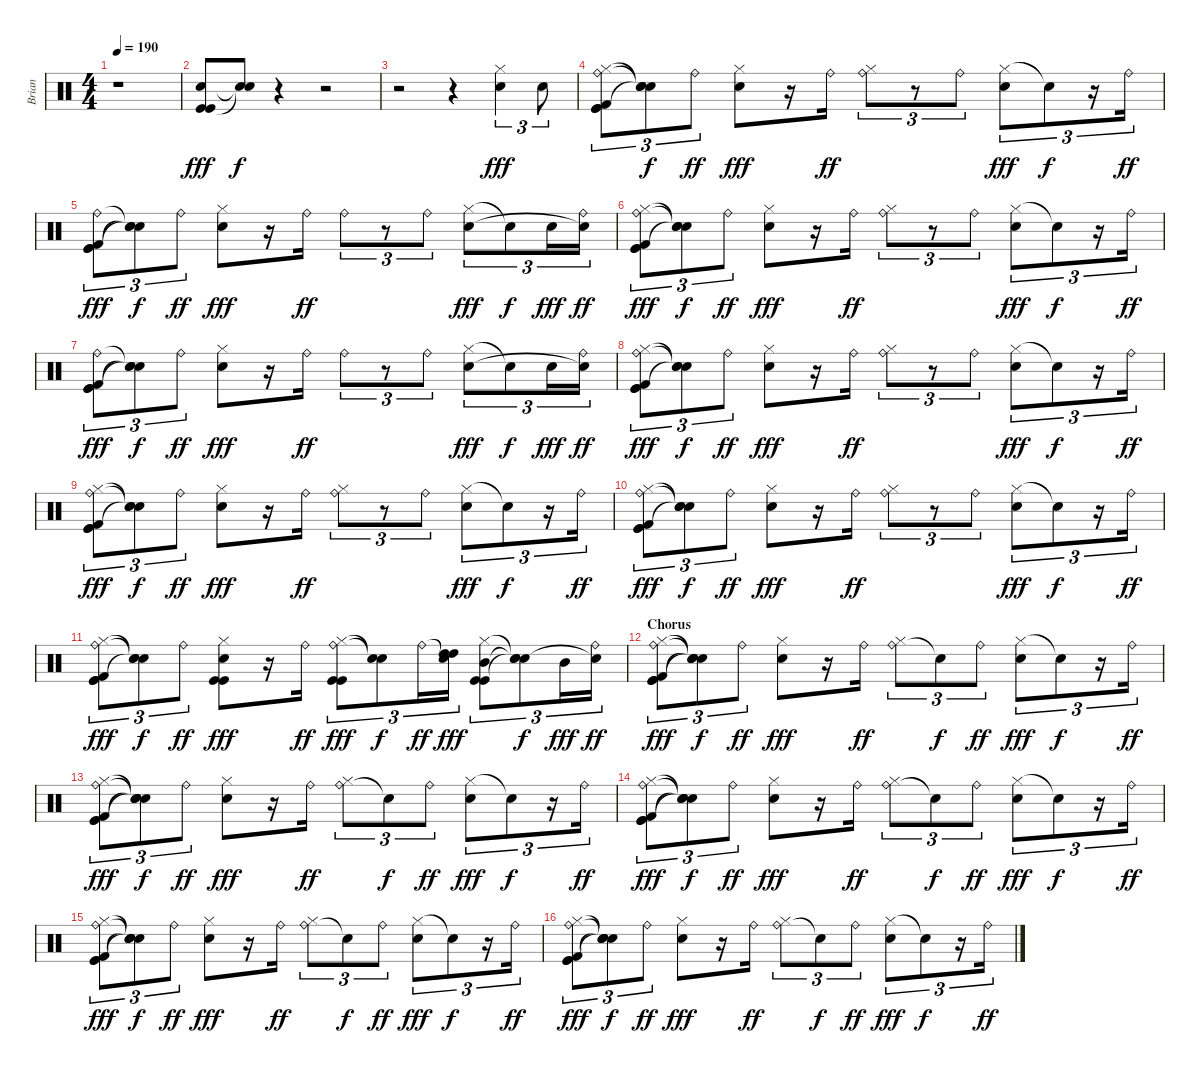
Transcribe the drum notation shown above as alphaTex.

\track ("Brian" "Brian") {instrument percussion}
\staff {score}
\articulation defaults
\ts (4 4)
\tempo 190
\clef neutral
\ks c
r.1{dy f} |
("Electric Snare (hit)" "Kick (hit)" "Kick (hit)").8{dy fff} ("Snare (hit)"{t} "Snare (hit)"{t}).8{dy f} r.4 r.2 |
r.2 r.4 ("Hi-Hat (closed)" "Electric Snare (hit)").4{tu (3 2) dy fff} "Electric Snare (hit)".8{tu (3 2)} |
("Ride (bell)" "Hi-Hat (closed)" "Kick (hit)" "Kick (hit) 2" "Kick (hit)").8{tu (3 2)} ("Snare (hit)"{t} "Snare (hit)"{t} "Snare (hit)"{t}).8{tu (3 2) dy f} "Ride (bell)".8{tu (3 2) dy ff} ("Hi-Hat (closed)" "Electric Snare (hit)").8{dy fff} r.16 "Ride (bell)".16{dy ff} ("Ride (bell)" "Hi-Hat (closed)").8{tu (3 2)} r.8{tu (3 2)} "Ride (bell)".8{tu (3 2)} ("Hi-Hat (closed)" "Electric Snare (hit)").8{tu (3 2) dy fff} "Snare (hit)"{t}.8{tu (3 2) dy f} r.16{tu (3 2)} "Ride (bell)".16{tu (3 2) dy ff} |
("Ride (bell)" "Kick (hit)" "Kick (hit) 2" "Kick (hit)").8{tu (3 2) dy fff} ("Snare (hit)"{t} "Snare (hit)"{t} "Snare (hit)"{t}).8{tu (3 2) dy f} "Ride (bell)".8{tu (3 2) dy ff} ("Hi-Hat (closed)" "Electric Snare (hit)").8{dy fff} r.16 "Ride (bell)".16{dy ff} "Ride (bell)".8{tu (3 2)} r.8{tu (3 2)} "Ride (bell)".8{tu (3 2)} ("Hi-Hat (closed)" "Electric Snare (hit)").8{tu (3 2) dy fff} "Snare (hit)"{t}.8{tu (3 2) dy f} "Electric Snare (hit)".16{tu (3 2) dy fff} ("Ride (bell)" "Snare (hit)"{t}).16{tu (3 2) dy ff} |
("Ride (bell)" "Hi-Hat (closed)" "Kick (hit)" "Kick (hit) 2" "Kick (hit)").8{tu (3 2) dy fff} ("Snare (hit)"{t} "Snare (hit)"{t} "Snare (hit)"{t}).8{tu (3 2) dy f} "Ride (bell)".8{tu (3 2) dy ff} ("Hi-Hat (closed)" "Electric Snare (hit)").8{dy fff} r.16 "Ride (bell)".16{dy ff} ("Ride (bell)" "Hi-Hat (closed)").8{tu (3 2)} r.8{tu (3 2)} "Ride (bell)".8{tu (3 2)} ("Hi-Hat (closed)" "Electric Snare (hit)").8{tu (3 2) dy fff} "Snare (hit)"{t}.8{tu (3 2) dy f} r.16{tu (3 2)} "Ride (bell)".16{tu (3 2) dy ff} |
("Ride (bell)" "Kick (hit)" "Kick (hit) 2" "Kick (hit)").8{tu (3 2) dy fff} ("Snare (hit)"{t} "Snare (hit)"{t} "Snare (hit)"{t}).8{tu (3 2) dy f} "Ride (bell)".8{tu (3 2) dy ff} ("Hi-Hat (closed)" "Electric Snare (hit)").8{dy fff} r.16 "Ride (bell)".16{dy ff} "Ride (bell)".8{tu (3 2)} r.8{tu (3 2)} "Ride (bell)".8{tu (3 2)} ("Hi-Hat (closed)" "Electric Snare (hit)").8{tu (3 2) dy fff} "Snare (hit)"{t}.8{tu (3 2) dy f} "Electric Snare (hit)".16{tu (3 2) dy fff} ("Ride (bell)" "Snare (hit)"{t}).16{tu (3 2) dy ff} |
("Ride (bell)" "Hi-Hat (closed)" "Kick (hit)" "Kick (hit) 2" "Kick (hit)").8{tu (3 2) dy fff} ("Snare (hit)"{t} "Snare (hit)"{t} "Snare (hit)"{t}).8{tu (3 2) dy f} "Ride (bell)".8{tu (3 2) dy ff} ("Hi-Hat (closed)" "Electric Snare (hit)").8{dy fff} r.16 "Ride (bell)".16{dy ff} ("Ride (bell)" "Hi-Hat (closed)").8{tu (3 2)} r.8{tu (3 2)} "Ride (bell)".8{tu (3 2)} ("Hi-Hat (closed)" "Electric Snare (hit)").8{tu (3 2) dy fff} "Snare (hit)"{t}.8{tu (3 2) dy f} r.16{tu (3 2)} "Ride (bell)".16{tu (3 2) dy ff} |
("Ride (bell)" "Hi-Hat (closed)" "Kick (hit)" "Kick (hit) 2" "Kick (hit)").8{tu (3 2) dy fff} ("Snare (hit)"{t} "Snare (hit)"{t} "Snare (hit)"{t}).8{tu (3 2) dy f} "Ride (bell)".8{tu (3 2) dy ff} ("Hi-Hat (closed)" "Electric Snare (hit)").8{dy fff} r.16 "Ride (bell)".16{dy ff} ("Ride (bell)" "Hi-Hat (closed)").8{tu (3 2)} r.8{tu (3 2)} "Ride (bell)".8{tu (3 2)} ("Hi-Hat (closed)" "Electric Snare (hit)").8{tu (3 2) dy fff} "Snare (hit)"{t}.8{tu (3 2) dy f} r.16{tu (3 2)} "Ride (bell)".16{tu (3 2) dy ff} |
("Ride (bell)" "Hi-Hat (closed)" "Kick (hit)" "Kick (hit) 2" "Kick (hit)").8{tu (3 2) dy fff} ("Snare (hit)"{t} "Snare (hit)"{t} "Snare (hit)"{t}).8{tu (3 2) dy f} "Ride (bell)".8{tu (3 2) dy ff} ("Hi-Hat (closed)" "Electric Snare (hit)").8{dy fff} r.16 "Ride (bell)".16{dy ff} ("Ride (bell)" "Hi-Hat (closed)").8{tu (3 2)} r.8{tu (3 2)} "Ride (bell)".8{tu (3 2)} ("Hi-Hat (closed)" "Electric Snare (hit)").8{tu (3 2) dy fff} "Snare (hit)"{t}.8{tu (3 2) dy f} r.16{tu (3 2)} "Ride (bell)".16{tu (3 2) dy ff} |
("Ride (bell)" "Hi-Hat (closed)" "Kick (hit)" "Kick (hit) 2" "Kick (hit)").8{tu (3 2) dy fff} ("Snare (hit)"{t} "Snare (hit)"{t} "Snare (hit)"{t}).8{tu (3 2) dy f} "Ride (bell)".8{tu (3 2) dy ff} ("Hi-Hat (closed)" "Electric Snare (hit)" "Kick (hit)" "Kick (hit)").8{dy fff} r.16 "Ride (bell)".16{dy ff} ("Ride (bell)" "Hi-Hat (closed)" "Kick (hit)" "Kick (hit)").8{tu (3 2) dy fff} ("Snare (hit)"{t} "Snare (hit)"{t}).8{tu (3 2) dy f} "Ride (bell)".16{tu (3 2) dy ff} ("Snare (hit)"{t} "High Tom (hit)" "High Tom (hit)").16{tu (3 2) dy fff} ("Hi-Hat (closed)" "Mid Tom (hit)" "Kick (hit)" "Kick (hit)").8{tu (3 2)} ("Snare (hit)"{t} "Snare (hit)"{t} "Snare (hit)"{t}).8{tu (3 2) dy f} "Mid Tom (hit)".16{tu (3 2) dy fff} ("Ride (bell)" "Snare (hit)"{t}).16{tu (3 2) dy ff} |
\section ("" "Chorus")
("Ride (bell)" "Hi-Hat (closed)" "Kick (hit)" "Kick (hit) 2" "Kick (hit)").8{tu (3 2) dy fff} ("Snare (hit)"{t} "Snare (hit)"{t} "Snare (hit)"{t} "Snare (hit)"{t}).8{tu (3 2) dy f} "Ride (bell)".8{tu (3 2) dy ff} ("Hi-Hat (closed)" "Electric Snare (hit)").8{dy fff} r.16 "Ride (bell)".16{dy ff} ("Ride (bell)" "Hi-Hat (closed)").8{tu (3 2)} "Snare (hit)"{t}.8{tu (3 2) dy f} "Ride (bell)".8{tu (3 2) dy ff} ("Hi-Hat (closed)" "Electric Snare (hit)").8{tu (3 2) dy fff} "Snare (hit)"{t}.8{tu (3 2) dy f} r.16{tu (3 2)} "Ride (bell)".16{tu (3 2) dy ff} |
("Ride (bell)" "Hi-Hat (closed)" "Kick (hit)" "Kick (hit) 2" "Kick (hit)").8{tu (3 2) dy fff} ("Snare (hit)"{t} "Snare (hit)"{t} "Snare (hit)"{t} "Snare (hit)"{t}).8{tu (3 2) dy f} "Ride (bell)".8{tu (3 2) dy ff} ("Hi-Hat (closed)" "Electric Snare (hit)").8{dy fff} r.16 "Ride (bell)".16{dy ff} ("Ride (bell)" "Hi-Hat (closed)").8{tu (3 2)} "Snare (hit)"{t}.8{tu (3 2) dy f} "Ride (bell)".8{tu (3 2) dy ff} ("Hi-Hat (closed)" "Electric Snare (hit)").8{tu (3 2) dy fff} "Snare (hit)"{t}.8{tu (3 2) dy f} r.16{tu (3 2)} "Ride (bell)".16{tu (3 2) dy ff} |
("Ride (bell)" "Hi-Hat (closed)" "Kick (hit)" "Kick (hit) 2" "Kick (hit)").8{tu (3 2) dy fff} ("Snare (hit)"{t} "Snare (hit)"{t} "Snare (hit)"{t} "Snare (hit)"{t}).8{tu (3 2) dy f} "Ride (bell)".8{tu (3 2) dy ff} ("Hi-Hat (closed)" "Electric Snare (hit)").8{dy fff} r.16 "Ride (bell)".16{dy ff} ("Ride (bell)" "Hi-Hat (closed)").8{tu (3 2)} "Snare (hit)"{t}.8{tu (3 2) dy f} "Ride (bell)".8{tu (3 2) dy ff} ("Hi-Hat (closed)" "Electric Snare (hit)").8{tu (3 2) dy fff} "Snare (hit)"{t}.8{tu (3 2) dy f} r.16{tu (3 2)} "Ride (bell)".16{tu (3 2) dy ff} |
("Ride (bell)" "Hi-Hat (closed)" "Kick (hit)" "Kick (hit) 2" "Kick (hit)").8{tu (3 2) dy fff} ("Snare (hit)"{t} "Snare (hit)"{t} "Snare (hit)"{t} "Snare (hit)"{t}).8{tu (3 2) dy f} "Ride (bell)".8{tu (3 2) dy ff} ("Hi-Hat (closed)" "Electric Snare (hit)").8{dy fff} r.16 "Ride (bell)".16{dy ff} ("Ride (bell)" "Hi-Hat (closed)").8{tu (3 2)} "Snare (hit)"{t}.8{tu (3 2) dy f} "Ride (bell)".8{tu (3 2) dy ff} ("Hi-Hat (closed)" "Electric Snare (hit)").8{tu (3 2) dy fff} "Snare (hit)"{t}.8{tu (3 2) dy f} r.16{tu (3 2)} "Ride (bell)".16{tu (3 2) dy ff} |
("Ride (bell)" "Hi-Hat (closed)" "Kick (hit)" "Kick (hit) 2" "Kick (hit)").8{tu (3 2) dy fff} ("Snare (hit)"{t} "Snare (hit)"{t} "Snare (hit)"{t} "Snare (hit)"{t}).8{tu (3 2) dy f} "Ride (bell)".8{tu (3 2) dy ff} ("Hi-Hat (closed)" "Electric Snare (hit)").8{dy fff} r.16 "Ride (bell)".16{dy ff} ("Ride (bell)" "Hi-Hat (closed)").8{tu (3 2)} "Snare (hit)"{t}.8{tu (3 2) dy f} "Ride (bell)".8{tu (3 2) dy ff} ("Hi-Hat (closed)" "Electric Snare (hit)").8{tu (3 2) dy fff} "Snare (hit)"{t}.8{tu (3 2) dy f} r.16{tu (3 2)} "Ride (bell)".16{tu (3 2) dy ff}
